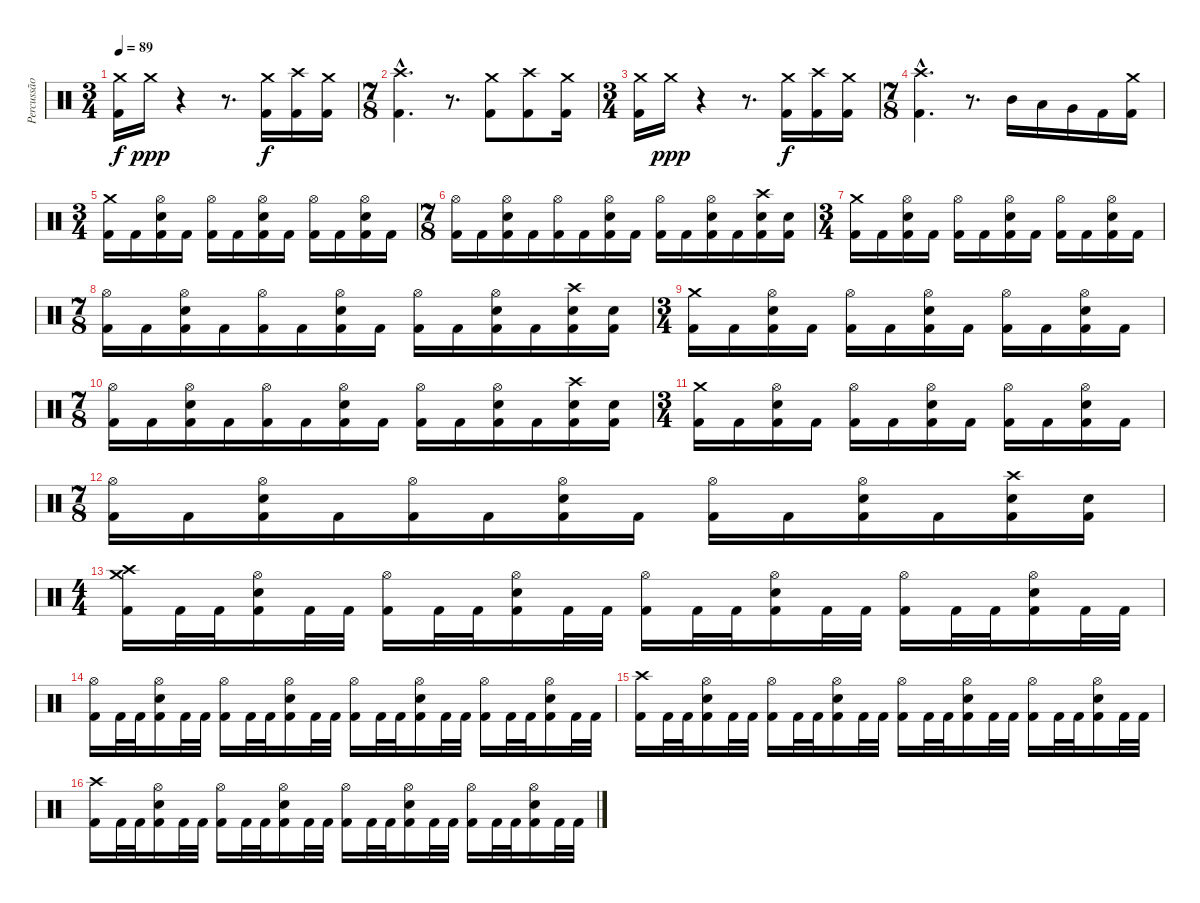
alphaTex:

\track ("Percussão" "Percussão") {instrument percussion}
\staff {score}
\articulation defaults
\ts (3 4)
\tempo 89
\clef neutral
\ks c
("Crash medium (hit)" "Kick (hit) 2").16{dy f} "Crash medium (hit)".16{dy ppp} r.4 r.8{d} ("Crash medium (hit)" "Kick (hit) 2").16{dy f} ("Crash high (hit)" "Kick (hit) 2").16 ("Crash medium (hit)" "Kick (hit) 2").16 |
\ts (7 8)
("Crash high (hit)"{hac} "Kick (hit) 2"{hac}).4{d} r.8{d} ("Crash medium (hit)" "Kick (hit) 2").8 ("Crash high (hit)" "Kick (hit) 2").8 ("Crash medium (hit)" "Kick (hit) 2").16 |
\ts (3 4)
("Crash medium (hit)" "Kick (hit) 2").16 "Crash medium (hit)".16{dy ppp} r.4 r.8{d} ("Crash medium (hit)" "Kick (hit) 2").16{dy f} ("Crash high (hit)" "Kick (hit) 2").16 ("Crash medium (hit)" "Kick (hit) 2").16 |
\ts (7 8)
("Crash high (hit)"{hac} "Kick (hit) 2"{hac}).4{d} r.8{d} "Mid Tom (hit)".16 "Low Tom (hit)".16 "Very Low Tom (hit)".16 "Kick (hit) 2".16 ("Crash medium (hit)" "Kick (hit) 2").16 |
\ts (3 4)
("Crash medium (hit)" "Kick (hit) 2").16 "Kick (hit) 2".16 ("Hi-Hat (open)" "Snare (hit) 2" "Kick (hit) 2").16 "Kick (hit) 2".16 ("Hi-Hat (open)" "Kick (hit) 2").16 "Kick (hit) 2".16 ("Hi-Hat (open)" "Snare (hit) 2" "Kick (hit) 2").16 "Kick (hit) 2".16 ("Hi-Hat (open)" "Kick (hit) 2").16 "Kick (hit) 2".16 ("Hi-Hat (open)" "Snare (hit) 2" "Kick (hit) 2").16 "Kick (hit) 2".16 |
\ts (7 8)
("Hi-Hat (open)" "Kick (hit) 2").16 "Kick (hit) 2".16 ("Hi-Hat (open)" "Snare (hit) 2" "Kick (hit) 2").16 "Kick (hit) 2".16 ("Hi-Hat (open)" "Kick (hit) 2").16 "Kick (hit) 2".16 ("Hi-Hat (open)" "Snare (hit) 2" "Kick (hit) 2").16 "Kick (hit) 2".16 ("Hi-Hat (open)" "Kick (hit) 2").16 "Kick (hit) 2".16 ("Hi-Hat (open)" "Snare (hit) 2" "Kick (hit) 2").16 "Kick (hit) 2".16 ("Crash high (hit)" "Snare (hit) 2" "Kick (hit) 2").16 ("Snare (hit) 2" "Kick (hit) 2").16 |
\ts (3 4)
("Crash medium (hit)" "Kick (hit) 2").16 "Kick (hit) 2".16 ("Hi-Hat (open)" "Snare (hit) 2" "Kick (hit) 2").16 "Kick (hit) 2".16 ("Hi-Hat (open)" "Kick (hit) 2").16 "Kick (hit) 2".16 ("Hi-Hat (open)" "Snare (hit) 2" "Kick (hit) 2").16 "Kick (hit) 2".16 ("Hi-Hat (open)" "Kick (hit) 2").16 "Kick (hit) 2".16 ("Hi-Hat (open)" "Snare (hit) 2" "Kick (hit) 2").16 "Kick (hit) 2".16 |
\ts (7 8)
("Hi-Hat (open)" "Kick (hit) 2").16 "Kick (hit) 2".16 ("Hi-Hat (open)" "Snare (hit) 2" "Kick (hit) 2").16 "Kick (hit) 2".16 ("Hi-Hat (open)" "Kick (hit) 2").16 "Kick (hit) 2".16 ("Hi-Hat (open)" "Snare (hit) 2" "Kick (hit) 2").16 "Kick (hit) 2".16 ("Hi-Hat (open)" "Kick (hit) 2").16 "Kick (hit) 2".16 ("Hi-Hat (open)" "Snare (hit) 2" "Kick (hit) 2").16 "Kick (hit) 2".16 ("Crash high (hit)" "Snare (hit) 2" "Kick (hit) 2").16 ("Snare (hit) 2" "Kick (hit) 2").16 |
\ts (3 4)
("Crash medium (hit)" "Kick (hit) 2").16 "Kick (hit) 2".16 ("Hi-Hat (open)" "Snare (hit) 2" "Kick (hit) 2").16 "Kick (hit) 2".16 ("Hi-Hat (open)" "Kick (hit) 2").16 "Kick (hit) 2".16 ("Hi-Hat (open)" "Snare (hit) 2" "Kick (hit) 2").16 "Kick (hit) 2".16 ("Hi-Hat (open)" "Kick (hit) 2").16 "Kick (hit) 2".16 ("Hi-Hat (open)" "Snare (hit) 2" "Kick (hit) 2").16 "Kick (hit) 2".16 |
\ts (7 8)
("Hi-Hat (open)" "Kick (hit) 2").16 "Kick (hit) 2".16 ("Hi-Hat (open)" "Snare (hit) 2" "Kick (hit) 2").16 "Kick (hit) 2".16 ("Hi-Hat (open)" "Kick (hit) 2").16 "Kick (hit) 2".16 ("Hi-Hat (open)" "Snare (hit) 2" "Kick (hit) 2").16 "Kick (hit) 2".16 ("Hi-Hat (open)" "Kick (hit) 2").16 "Kick (hit) 2".16 ("Hi-Hat (open)" "Snare (hit) 2" "Kick (hit) 2").16 "Kick (hit) 2".16 ("Crash high (hit)" "Snare (hit) 2" "Kick (hit) 2").16 ("Snare (hit) 2" "Kick (hit) 2").16 |
\ts (3 4)
("Crash medium (hit)" "Kick (hit) 2").16 "Kick (hit) 2".16 ("Hi-Hat (open)" "Snare (hit) 2" "Kick (hit) 2").16 "Kick (hit) 2".16 ("Hi-Hat (open)" "Kick (hit) 2").16 "Kick (hit) 2".16 ("Hi-Hat (open)" "Snare (hit) 2" "Kick (hit) 2").16 "Kick (hit) 2".16 ("Hi-Hat (open)" "Kick (hit) 2").16 "Kick (hit) 2".16 ("Hi-Hat (open)" "Snare (hit) 2" "Kick (hit) 2").16 "Kick (hit) 2".16 |
\ts (7 8)
("Hi-Hat (open)" "Kick (hit) 2").16 "Kick (hit) 2".16 ("Hi-Hat (open)" "Snare (hit) 2" "Kick (hit) 2").16 "Kick (hit) 2".16 ("Hi-Hat (open)" "Kick (hit) 2").16 "Kick (hit) 2".16 ("Hi-Hat (open)" "Snare (hit) 2" "Kick (hit) 2").16 "Kick (hit) 2".16 ("Hi-Hat (open)" "Kick (hit) 2").16 "Kick (hit) 2".16 ("Hi-Hat (open)" "Snare (hit) 2" "Kick (hit) 2").16 "Kick (hit) 2".16 ("Crash high (hit)" "Snare (hit) 2" "Kick (hit) 2").16 ("Snare (hit) 2" "Kick (hit) 2").16 |
\ts (4 4)
("Crash high (hit)" "Crash medium (hit)" "Kick (hit) 2").16 "Kick (hit) 2".32 "Kick (hit) 2".32 ("Hi-Hat (open)" "Snare (hit) 2" "Kick (hit) 2").16 "Kick (hit) 2".32 "Kick (hit) 2".32 ("Hi-Hat (open)" "Kick (hit) 2").16 "Kick (hit) 2".32 "Kick (hit) 2".32 ("Hi-Hat (open)" "Snare (hit) 2" "Kick (hit) 2").16 "Kick (hit) 2".32 "Kick (hit) 2".32 ("Hi-Hat (open)" "Kick (hit) 2").16 "Kick (hit) 2".32 "Kick (hit) 2".32 ("Hi-Hat (open)" "Snare (hit) 2" "Kick (hit) 2").16 "Kick (hit) 2".32 "Kick (hit) 2".32 ("Hi-Hat (open)" "Kick (hit) 2").16 "Kick (hit) 2".32 "Kick (hit) 2".32 ("Hi-Hat (open)" "Snare (hit) 2" "Kick (hit) 2").16 "Kick (hit) 2".32 "Kick (hit) 2".32 |
("Hi-Hat (open)" "Kick (hit) 2").16 "Kick (hit) 2".32 "Kick (hit) 2".32 ("Hi-Hat (open)" "Snare (hit) 2" "Kick (hit) 2").16 "Kick (hit) 2".32 "Kick (hit) 2".32 ("Hi-Hat (open)" "Kick (hit) 2").16 "Kick (hit) 2".32 "Kick (hit) 2".32 ("Hi-Hat (open)" "Snare (hit) 2" "Kick (hit) 2").16 "Kick (hit) 2".32 "Kick (hit) 2".32 ("Hi-Hat (open)" "Kick (hit) 2").16 "Kick (hit) 2".32 "Kick (hit) 2".32 ("Hi-Hat (open)" "Snare (hit) 2" "Kick (hit) 2").16 "Kick (hit) 2".32 "Kick (hit) 2".32 ("Hi-Hat (open)" "Kick (hit) 2").16 "Kick (hit) 2".32 "Kick (hit) 2".32 ("Hi-Hat (open)" "Snare (hit) 2" "Kick (hit) 2").16 "Kick (hit) 2".32 "Kick (hit) 2".32 |
("Crash high (hit)" "Kick (hit) 2").16 "Kick (hit) 2".32 "Kick (hit) 2".32 ("Hi-Hat (open)" "Snare (hit) 2" "Kick (hit) 2").16 "Kick (hit) 2".32 "Kick (hit) 2".32 ("Hi-Hat (open)" "Kick (hit) 2").16 "Kick (hit) 2".32 "Kick (hit) 2".32 ("Hi-Hat (open)" "Snare (hit) 2" "Kick (hit) 2").16 "Kick (hit) 2".32 "Kick (hit) 2".32 ("Hi-Hat (open)" "Kick (hit) 2").16 "Kick (hit) 2".32 "Kick (hit) 2".32 ("Hi-Hat (open)" "Snare (hit) 2" "Kick (hit) 2").16 "Kick (hit) 2".32 "Kick (hit) 2".32 ("Hi-Hat (open)" "Kick (hit) 2").16 "Kick (hit) 2".32 "Kick (hit) 2".32 ("Hi-Hat (open)" "Snare (hit) 2" "Kick (hit) 2").16 "Kick (hit) 2".32 "Kick (hit) 2".32 |
("Crash high (hit)" "Kick (hit) 2").16 "Kick (hit) 2".32 "Kick (hit) 2".32 ("Hi-Hat (open)" "Snare (hit) 2" "Kick (hit) 2").16 "Kick (hit) 2".32 "Kick (hit) 2".32 ("Hi-Hat (open)" "Kick (hit) 2").16 "Kick (hit) 2".32 "Kick (hit) 2".32 ("Hi-Hat (open)" "Snare (hit) 2" "Kick (hit) 2").16 "Kick (hit) 2".32 "Kick (hit) 2".32 ("Hi-Hat (open)" "Kick (hit) 2").16 "Kick (hit) 2".32 "Kick (hit) 2".32 ("Hi-Hat (open)" "Snare (hit) 2" "Kick (hit) 2").16 "Kick (hit) 2".32 "Kick (hit) 2".32 ("Hi-Hat (open)" "Kick (hit) 2").16 "Kick (hit) 2".32 "Kick (hit) 2".32 ("Hi-Hat (open)" "Snare (hit) 2" "Kick (hit) 2").16 "Kick (hit) 2".32 "Kick (hit) 2".32
